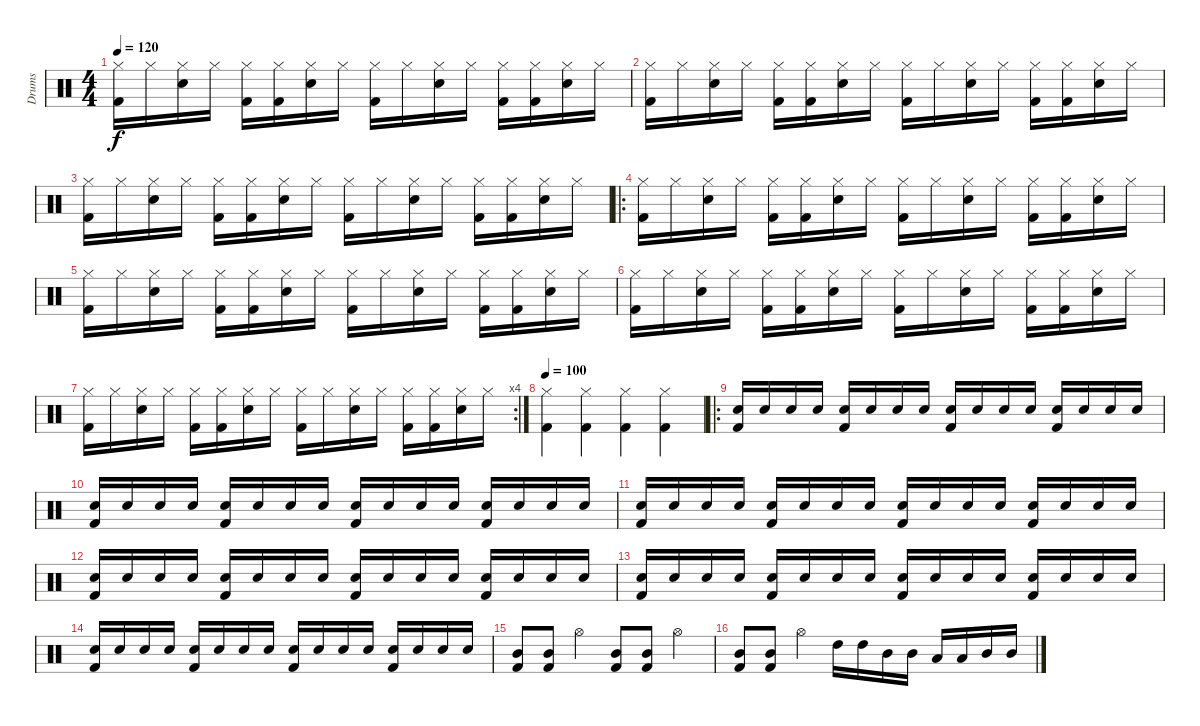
\track ("Drums" "Drums") {instrument percussion}
\staff {score}
\articulation defaults
\ts (4 4)
\tempo 120
\clef neutral
\ks c
("Hi-Hat (closed)" "Kick (hit) 2").16{dy f} "Hi-Hat (closed)".16 ("Electric Snare (hit)" "Hi-Hat (closed)").16 "Hi-Hat (closed)".16 ("Hi-Hat (closed)" "Kick (hit) 2").16 ("Hi-Hat (closed)" "Kick (hit) 2").16 ("Electric Snare (hit)" "Hi-Hat (closed)").16 "Hi-Hat (closed)".16 ("Hi-Hat (closed)" "Kick (hit) 2").16 "Hi-Hat (closed)".16 ("Electric Snare (hit)" "Hi-Hat (closed)").16 "Hi-Hat (closed)".16 ("Hi-Hat (closed)" "Kick (hit) 2").16 ("Hi-Hat (closed)" "Kick (hit) 2").16 ("Electric Snare (hit)" "Hi-Hat (closed)").16 "Hi-Hat (closed)".16 |
("Hi-Hat (closed)" "Kick (hit) 2").16 "Hi-Hat (closed)".16 ("Electric Snare (hit)" "Hi-Hat (closed)").16 "Hi-Hat (closed)".16 ("Hi-Hat (closed)" "Kick (hit) 2").16 ("Hi-Hat (closed)" "Kick (hit) 2").16 ("Electric Snare (hit)" "Hi-Hat (closed)").16 "Hi-Hat (closed)".16 ("Hi-Hat (closed)" "Kick (hit) 2").16 "Hi-Hat (closed)".16 ("Electric Snare (hit)" "Hi-Hat (closed)").16 "Hi-Hat (closed)".16 ("Hi-Hat (closed)" "Kick (hit) 2").16 ("Hi-Hat (closed)" "Kick (hit) 2").16 ("Electric Snare (hit)" "Hi-Hat (closed)").16 "Hi-Hat (closed)".16 |
("Hi-Hat (closed)" "Kick (hit) 2").16 "Hi-Hat (closed)".16 ("Electric Snare (hit)" "Hi-Hat (closed)").16 "Hi-Hat (closed)".16 ("Hi-Hat (closed)" "Kick (hit) 2").16 ("Hi-Hat (closed)" "Kick (hit) 2").16 ("Electric Snare (hit)" "Hi-Hat (closed)").16 "Hi-Hat (closed)".16 ("Hi-Hat (closed)" "Kick (hit) 2").16 "Hi-Hat (closed)".16 ("Electric Snare (hit)" "Hi-Hat (closed)").16 "Hi-Hat (closed)".16 ("Hi-Hat (closed)" "Kick (hit) 2").16 ("Hi-Hat (closed)" "Kick (hit) 2").16 ("Electric Snare (hit)" "Hi-Hat (closed)").16 "Hi-Hat (closed)".16 |
\ro
("Hi-Hat (closed)" "Kick (hit) 2").16 "Hi-Hat (closed)".16 ("Electric Snare (hit)" "Hi-Hat (closed)").16 "Hi-Hat (closed)".16 ("Hi-Hat (closed)" "Kick (hit) 2").16 ("Hi-Hat (closed)" "Kick (hit) 2").16 ("Electric Snare (hit)" "Hi-Hat (closed)").16 "Hi-Hat (closed)".16 ("Hi-Hat (closed)" "Kick (hit) 2").16 "Hi-Hat (closed)".16 ("Electric Snare (hit)" "Hi-Hat (closed)").16 "Hi-Hat (closed)".16 ("Hi-Hat (closed)" "Kick (hit) 2").16 ("Hi-Hat (closed)" "Kick (hit) 2").16 ("Electric Snare (hit)" "Hi-Hat (closed)").16 "Hi-Hat (closed)".16 |
("Hi-Hat (closed)" "Kick (hit) 2").16 "Hi-Hat (closed)".16 ("Electric Snare (hit)" "Hi-Hat (closed)").16 "Hi-Hat (closed)".16 ("Hi-Hat (closed)" "Kick (hit) 2").16 ("Hi-Hat (closed)" "Kick (hit) 2").16 ("Electric Snare (hit)" "Hi-Hat (closed)").16 "Hi-Hat (closed)".16 ("Hi-Hat (closed)" "Kick (hit) 2").16 "Hi-Hat (closed)".16 ("Electric Snare (hit)" "Hi-Hat (closed)").16 "Hi-Hat (closed)".16 ("Hi-Hat (closed)" "Kick (hit) 2").16 ("Hi-Hat (closed)" "Kick (hit) 2").16 ("Electric Snare (hit)" "Hi-Hat (closed)").16 "Hi-Hat (closed)".16 |
("Hi-Hat (closed)" "Kick (hit) 2").16 "Hi-Hat (closed)".16 ("Electric Snare (hit)" "Hi-Hat (closed)").16 "Hi-Hat (closed)".16 ("Hi-Hat (closed)" "Kick (hit) 2").16 ("Hi-Hat (closed)" "Kick (hit) 2").16 ("Electric Snare (hit)" "Hi-Hat (closed)").16 "Hi-Hat (closed)".16 ("Hi-Hat (closed)" "Kick (hit) 2").16 "Hi-Hat (closed)".16 ("Electric Snare (hit)" "Hi-Hat (closed)").16 "Hi-Hat (closed)".16 ("Hi-Hat (closed)" "Kick (hit) 2").16 ("Hi-Hat (closed)" "Kick (hit) 2").16 ("Electric Snare (hit)" "Hi-Hat (closed)").16 "Hi-Hat (closed)".16 |
\rc 4
("Hi-Hat (closed)" "Kick (hit) 2").16 "Hi-Hat (closed)".16 ("Electric Snare (hit)" "Hi-Hat (closed)").16 "Hi-Hat (closed)".16 ("Hi-Hat (closed)" "Kick (hit) 2").16 ("Hi-Hat (closed)" "Kick (hit) 2").16 ("Electric Snare (hit)" "Hi-Hat (closed)").16 "Hi-Hat (closed)".16 ("Hi-Hat (closed)" "Kick (hit) 2").16 "Hi-Hat (closed)".16 ("Electric Snare (hit)" "Hi-Hat (closed)").16 "Hi-Hat (closed)".16 ("Hi-Hat (closed)" "Kick (hit) 2").16 ("Hi-Hat (closed)" "Kick (hit) 2").16 ("Electric Snare (hit)" "Hi-Hat (closed)").16 "Hi-Hat (closed)".16 |
\tempo 100
("Hi-Hat (closed)" "Kick (hit) 2").4 ("Hi-Hat (closed)" "Kick (hit) 2").4 ("Hi-Hat (closed)" "Kick (hit) 2").4 ("Hi-Hat (closed)" "Kick (hit) 2").4 |
\ro
("Kick (hit) 2" "Electric Snare (hit)").16 "Electric Snare (hit)".16 "Electric Snare (hit)".16 "Electric Snare (hit)".16 ("Kick (hit) 2" "Electric Snare (hit)").16 "Electric Snare (hit)".16 "Electric Snare (hit)".16 "Electric Snare (hit)".16 ("Kick (hit) 2" "Electric Snare (hit)").16 "Electric Snare (hit)".16 "Electric Snare (hit)".16 "Electric Snare (hit)".16 ("Kick (hit) 2" "Electric Snare (hit)").16 "Electric Snare (hit)".16 "Electric Snare (hit)".16 "Electric Snare (hit)".16 |
("Kick (hit) 2" "Electric Snare (hit)").16 "Electric Snare (hit)".16 "Electric Snare (hit)".16 "Electric Snare (hit)".16 ("Kick (hit) 2" "Electric Snare (hit)").16 "Electric Snare (hit)".16 "Electric Snare (hit)".16 "Electric Snare (hit)".16 ("Kick (hit) 2" "Electric Snare (hit)").16 "Electric Snare (hit)".16 "Electric Snare (hit)".16 "Electric Snare (hit)".16 ("Kick (hit) 2" "Electric Snare (hit)").16 "Electric Snare (hit)".16 "Electric Snare (hit)".16 "Electric Snare (hit)".16 |
("Kick (hit) 2" "Electric Snare (hit)").16 "Electric Snare (hit)".16 "Electric Snare (hit)".16 "Electric Snare (hit)".16 ("Kick (hit) 2" "Electric Snare (hit)").16 "Electric Snare (hit)".16 "Electric Snare (hit)".16 "Electric Snare (hit)".16 ("Kick (hit) 2" "Electric Snare (hit)").16 "Electric Snare (hit)".16 "Electric Snare (hit)".16 "Electric Snare (hit)".16 ("Kick (hit) 2" "Electric Snare (hit)").16 "Electric Snare (hit)".16 "Electric Snare (hit)".16 "Electric Snare (hit)".16 |
("Kick (hit) 2" "Electric Snare (hit)").16 "Electric Snare (hit)".16 "Electric Snare (hit)".16 "Electric Snare (hit)".16 ("Kick (hit) 2" "Electric Snare (hit)").16 "Electric Snare (hit)".16 "Electric Snare (hit)".16 "Electric Snare (hit)".16 ("Kick (hit) 2" "Electric Snare (hit)").16 "Electric Snare (hit)".16 "Electric Snare (hit)".16 "Electric Snare (hit)".16 ("Kick (hit) 2" "Electric Snare (hit)").16 "Electric Snare (hit)".16 "Electric Snare (hit)".16 "Electric Snare (hit)".16 |
("Kick (hit) 2" "Electric Snare (hit)").16 "Electric Snare (hit)".16 "Electric Snare (hit)".16 "Electric Snare (hit)".16 ("Kick (hit) 2" "Electric Snare (hit)").16 "Electric Snare (hit)".16 "Electric Snare (hit)".16 "Electric Snare (hit)".16 ("Kick (hit) 2" "Electric Snare (hit)").16 "Electric Snare (hit)".16 "Electric Snare (hit)".16 "Electric Snare (hit)".16 ("Kick (hit) 2" "Electric Snare (hit)").16 "Electric Snare (hit)".16 "Electric Snare (hit)".16 "Electric Snare (hit)".16 |
("Kick (hit) 2" "Electric Snare (hit)").16 "Electric Snare (hit)".16 "Electric Snare (hit)".16 "Electric Snare (hit)".16 ("Kick (hit) 2" "Electric Snare (hit)").16 "Electric Snare (hit)".16 "Electric Snare (hit)".16 "Electric Snare (hit)".16 ("Kick (hit) 2" "Electric Snare (hit)").16 "Electric Snare (hit)".16 "Electric Snare (hit)".16 "Electric Snare (hit)".16 ("Kick (hit) 2" "Electric Snare (hit)").16 "Electric Snare (hit)".16 "Electric Snare (hit)".16 "Electric Snare (hit)".16 |
("Kick (hit) 2" "Mid Tom (hit)").8 ("Kick (hit) 2" "Mid Tom (hit)").8 "Hi-Hat (open)".4 ("Kick (hit) 2" "Mid Tom (hit)").8 ("Kick (hit) 2" "Mid Tom (hit)").8 "Hi-Hat (open)".4 |
("Kick (hit) 2" "Mid Tom (hit)").8 ("Kick (hit) 2" "Mid Tom (hit)").8 "Hi-Hat (open)".4 "High Tom (hit)".16 "High Tom (hit)".16 "Mid Tom (hit)".16 "Mid Tom (hit)".16 "Low Tom (hit)".16 "Low Tom (hit)".16 "Mid Tom (hit)".16 "Mid Tom (hit)".16
